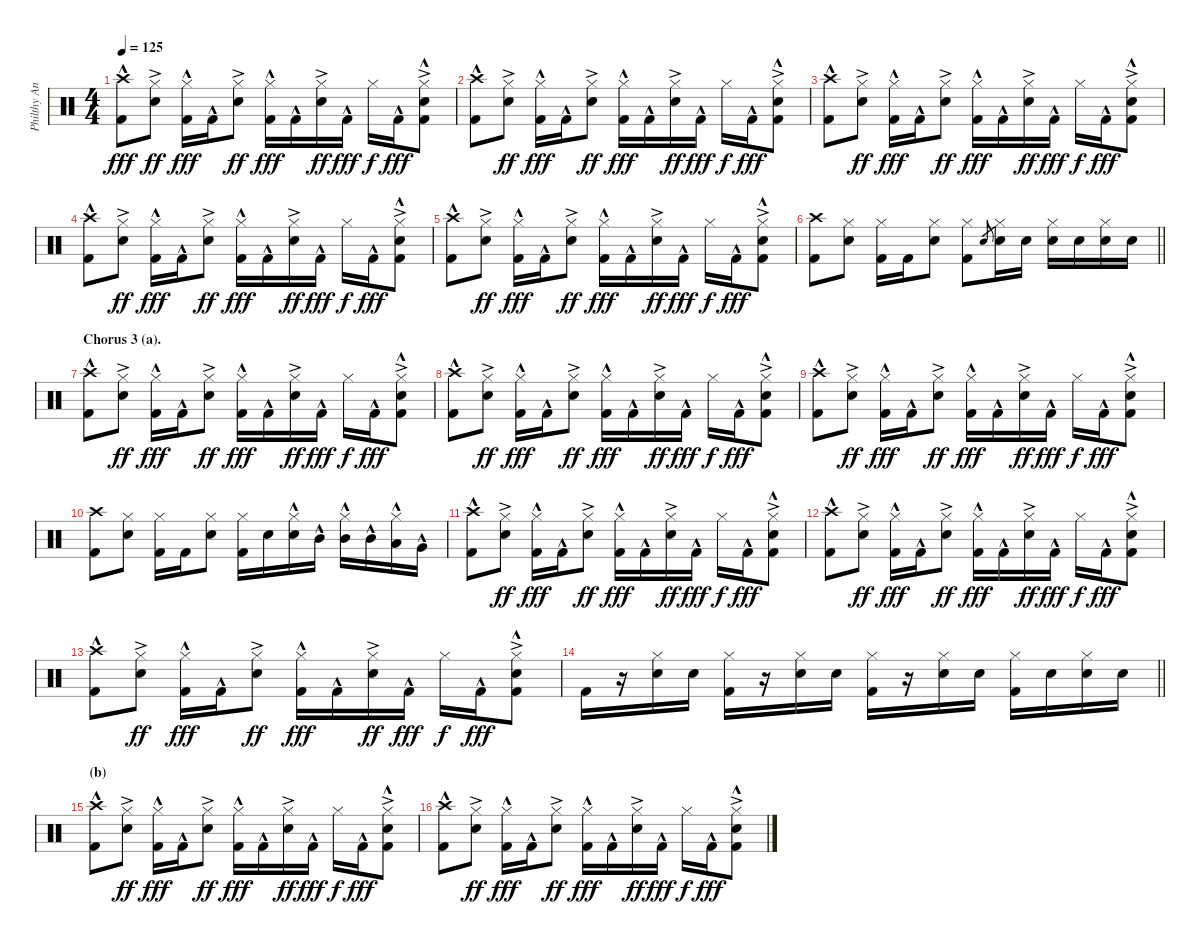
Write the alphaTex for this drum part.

\track ("Philthy Animal Taylor" "Philthy An") {instrument percussion}
\staff {score}
\articulation defaults
\ts (4 4)
\tempo 125
\clef neutral
\ks c
("Crash high (hit)" "Kick (hit) 2"{hac}).8{dy fff} ("Hi-Hat (closed)" "Electric Snare (hit)"{ac}).8{dy ff} ("Hi-Hat (closed)" "Kick (hit) 2"{hac}).16{dy fff} "Kick (hit) 2"{hac}.16 ("Hi-Hat (closed)" "Electric Snare (hit)"{ac}).8{dy ff} ("Hi-Hat (closed)" "Kick (hit) 2"{hac}).16{dy fff} "Kick (hit) 2"{hac}.16 ("Hi-Hat (closed)" "Electric Snare (hit)"{ac}).16{dy ff} "Kick (hit) 2"{hac}.16{dy fff} "Hi-Hat (closed)".16{dy f} "Kick (hit) 2"{hac}.16{dy fff} ("Hi-Hat (closed)" "Electric Snare (hit)"{ac} "Kick (hit) 2"{hac}).8 |
("Crash high (hit)" "Kick (hit) 2"{hac}).8 ("Hi-Hat (closed)" "Electric Snare (hit)"{ac}).8{dy ff} ("Hi-Hat (closed)" "Kick (hit) 2"{hac}).16{dy fff} "Kick (hit) 2"{hac}.16 ("Hi-Hat (closed)" "Electric Snare (hit)"{ac}).8{dy ff} ("Hi-Hat (closed)" "Kick (hit) 2"{hac}).16{dy fff} "Kick (hit) 2"{hac}.16 ("Hi-Hat (closed)" "Electric Snare (hit)"{ac}).16{dy ff} "Kick (hit) 2"{hac}.16{dy fff} "Hi-Hat (closed)".16{dy f} "Kick (hit) 2"{hac}.16{dy fff} ("Hi-Hat (closed)" "Electric Snare (hit)"{ac} "Kick (hit) 2"{hac}).8 |
("Crash high (hit)" "Kick (hit) 2"{hac}).8 ("Hi-Hat (closed)" "Electric Snare (hit)"{ac}).8{dy ff} ("Hi-Hat (closed)" "Kick (hit) 2"{hac}).16{dy fff} "Kick (hit) 2"{hac}.16 ("Hi-Hat (closed)" "Electric Snare (hit)"{ac}).8{dy ff} ("Hi-Hat (closed)" "Kick (hit) 2"{hac}).16{dy fff} "Kick (hit) 2"{hac}.16 ("Hi-Hat (closed)" "Electric Snare (hit)"{ac}).16{dy ff} "Kick (hit) 2"{hac}.16{dy fff} "Hi-Hat (closed)".16{dy f} "Kick (hit) 2"{hac}.16{dy fff} ("Hi-Hat (closed)" "Electric Snare (hit)"{ac} "Kick (hit) 2"{hac}).8 |
("Crash high (hit)" "Kick (hit) 2"{hac}).8 ("Hi-Hat (closed)" "Electric Snare (hit)"{ac}).8{dy ff} ("Hi-Hat (closed)" "Kick (hit) 2"{hac}).16{dy fff} "Kick (hit) 2"{hac}.16 ("Hi-Hat (closed)" "Electric Snare (hit)"{ac}).8{dy ff} ("Hi-Hat (closed)" "Kick (hit) 2"{hac}).16{dy fff} "Kick (hit) 2"{hac}.16 ("Hi-Hat (closed)" "Electric Snare (hit)"{ac}).16{dy ff} "Kick (hit) 2"{hac}.16{dy fff} "Hi-Hat (closed)".16{dy f} "Kick (hit) 2"{hac}.16{dy fff} ("Hi-Hat (closed)" "Electric Snare (hit)"{ac} "Kick (hit) 2"{hac}).8 |
("Crash high (hit)" "Kick (hit) 2"{hac}).8 ("Hi-Hat (closed)" "Electric Snare (hit)"{ac}).8{dy ff} ("Hi-Hat (closed)" "Kick (hit) 2"{hac}).16{dy fff} "Kick (hit) 2"{hac}.16 ("Hi-Hat (closed)" "Electric Snare (hit)"{ac}).8{dy ff} ("Hi-Hat (closed)" "Kick (hit) 2"{hac}).16{dy fff} "Kick (hit) 2"{hac}.16 ("Hi-Hat (closed)" "Electric Snare (hit)"{ac}).16{dy ff} "Kick (hit) 2"{hac}.16{dy fff} "Hi-Hat (closed)".16{dy f} "Kick (hit) 2"{hac}.16{dy fff} ("Hi-Hat (closed)" "Electric Snare (hit)"{ac} "Kick (hit) 2"{hac}).8 |
\barLineRight lightlight
("Crash high (hit)" "Kick (hit) 2").8 ("Hi-Hat (closed)" "Electric Snare (hit)").8 ("Hi-Hat (closed)" "Kick (hit) 2").16 "Kick (hit) 2".16 ("Hi-Hat (closed)" "Electric Snare (hit)").8 ("Hi-Hat (closed)" "Kick (hit) 2").8 "Electric Snare (hit)".8{gr} ("Hi-Hat (closed)" "Electric Snare (hit)").16 "Electric Snare (hit)".16 ("Hi-Hat (closed)" "Electric Snare (hit)").16 "Electric Snare (hit)".16 ("Hi-Hat (closed)" "Electric Snare (hit)").16 "Electric Snare (hit)".16 |
\section ("" "Chorus 3 (a).")
("Crash high (hit)" "Kick (hit) 2"{hac}).8 ("Hi-Hat (closed)" "Electric Snare (hit)"{ac}).8{dy ff} ("Hi-Hat (closed)" "Kick (hit) 2"{hac}).16{dy fff} "Kick (hit) 2"{hac}.16 ("Hi-Hat (closed)" "Electric Snare (hit)"{ac}).8{dy ff} ("Hi-Hat (closed)" "Kick (hit) 2"{hac}).16{dy fff} "Kick (hit) 2"{hac}.16 ("Hi-Hat (closed)" "Electric Snare (hit)"{ac}).16{dy ff} "Kick (hit) 2"{hac}.16{dy fff} "Hi-Hat (closed)".16{dy f} "Kick (hit) 2"{hac}.16{dy fff} ("Hi-Hat (closed)" "Electric Snare (hit)"{ac} "Kick (hit) 2"{hac}).8 |
("Crash high (hit)" "Kick (hit) 2"{hac}).8 ("Hi-Hat (closed)" "Electric Snare (hit)"{ac}).8{dy ff} ("Hi-Hat (closed)" "Kick (hit) 2"{hac}).16{dy fff} "Kick (hit) 2"{hac}.16 ("Hi-Hat (closed)" "Electric Snare (hit)"{ac}).8{dy ff} ("Hi-Hat (closed)" "Kick (hit) 2"{hac}).16{dy fff} "Kick (hit) 2"{hac}.16 ("Hi-Hat (closed)" "Electric Snare (hit)"{ac}).16{dy ff} "Kick (hit) 2"{hac}.16{dy fff} "Hi-Hat (closed)".16{dy f} "Kick (hit) 2"{hac}.16{dy fff} ("Hi-Hat (closed)" "Electric Snare (hit)"{ac} "Kick (hit) 2"{hac}).8 |
("Crash high (hit)" "Kick (hit) 2"{hac}).8 ("Hi-Hat (closed)" "Electric Snare (hit)"{ac}).8{dy ff} ("Hi-Hat (closed)" "Kick (hit) 2"{hac}).16{dy fff} "Kick (hit) 2"{hac}.16 ("Hi-Hat (closed)" "Electric Snare (hit)"{ac}).8{dy ff} ("Hi-Hat (closed)" "Kick (hit) 2"{hac}).16{dy fff} "Kick (hit) 2"{hac}.16 ("Hi-Hat (closed)" "Electric Snare (hit)"{ac}).16{dy ff} "Kick (hit) 2"{hac}.16{dy fff} "Hi-Hat (closed)".16{dy f} "Kick (hit) 2"{hac}.16{dy fff} ("Hi-Hat (closed)" "Electric Snare (hit)"{ac} "Kick (hit) 2"{hac}).8 |
("Crash high (hit)" "Kick (hit) 2").8 ("Hi-Hat (closed)" "Electric Snare (hit)").8 ("Hi-Hat (closed)" "Kick (hit) 2").16 "Kick (hit) 2".16 ("Hi-Hat (closed)" "Electric Snare (hit)").8 ("Hi-Hat (closed)" "Kick (hit) 2").16 "Electric Snare (hit)".16 ("Hi-Hat (closed)" "Electric Snare (hit)"{hac}).16 "Mid Tom (hit)"{hac}.16 ("Hi-Hat (closed)" "Mid Tom (hit)"{hac}).16 "Mid Tom (hit)"{hac}.16 ("Hi-Hat (closed)" "Low Tom (hit)"{hac}).16 "Very Low Tom (hit)"{hac}.16 |
("Crash high (hit)" "Kick (hit) 2"{hac}).8 ("Hi-Hat (closed)" "Electric Snare (hit)"{ac}).8{dy ff} ("Hi-Hat (closed)" "Kick (hit) 2"{hac}).16{dy fff} "Kick (hit) 2"{hac}.16 ("Hi-Hat (closed)" "Electric Snare (hit)"{ac}).8{dy ff} ("Hi-Hat (closed)" "Kick (hit) 2"{hac}).16{dy fff} "Kick (hit) 2"{hac}.16 ("Hi-Hat (closed)" "Electric Snare (hit)"{ac}).16{dy ff} "Kick (hit) 2"{hac}.16{dy fff} "Hi-Hat (closed)".16{dy f} "Kick (hit) 2"{hac}.16{dy fff} ("Hi-Hat (closed)" "Electric Snare (hit)"{ac} "Kick (hit) 2"{hac}).8 |
("Crash high (hit)" "Kick (hit) 2"{hac}).8 ("Hi-Hat (closed)" "Electric Snare (hit)"{ac}).8{dy ff} ("Hi-Hat (closed)" "Kick (hit) 2"{hac}).16{dy fff} "Kick (hit) 2"{hac}.16 ("Hi-Hat (closed)" "Electric Snare (hit)"{ac}).8{dy ff} ("Hi-Hat (closed)" "Kick (hit) 2"{hac}).16{dy fff} "Kick (hit) 2"{hac}.16 ("Hi-Hat (closed)" "Electric Snare (hit)"{ac}).16{dy ff} "Kick (hit) 2"{hac}.16{dy fff} "Hi-Hat (closed)".16{dy f} "Kick (hit) 2"{hac}.16{dy fff} ("Hi-Hat (closed)" "Electric Snare (hit)"{ac} "Kick (hit) 2"{hac}).8 |
("Crash high (hit)" "Kick (hit) 2"{hac}).8 ("Hi-Hat (closed)" "Electric Snare (hit)"{ac}).8{dy ff} ("Hi-Hat (closed)" "Kick (hit) 2"{hac}).16{dy fff} "Kick (hit) 2"{hac}.16 ("Hi-Hat (closed)" "Electric Snare (hit)"{ac}).8{dy ff} ("Hi-Hat (closed)" "Kick (hit) 2"{hac}).16{dy fff} "Kick (hit) 2"{hac}.16 ("Hi-Hat (closed)" "Electric Snare (hit)"{ac}).16{dy ff} "Kick (hit) 2"{hac}.16{dy fff} "Hi-Hat (closed)".16{dy f} "Kick (hit) 2"{hac}.16{dy fff} ("Hi-Hat (closed)" "Electric Snare (hit)"{ac} "Kick (hit) 2"{hac}).8 |
\barLineRight lightlight "Kick (hit) 2".16
r.16 ("Hi-Hat (closed)" "Electric Snare (hit)").16 "Electric Snare (hit)".16 ("Hi-Hat (closed)" "Kick (hit) 2").16 r.16 ("Hi-Hat (closed)" "Electric Snare (hit)").16 "Electric Snare (hit)".16 ("Hi-Hat (closed)" "Kick (hit) 2").16 r.16 ("Hi-Hat (closed)" "Electric Snare (hit)").16 "Electric Snare (hit)".16 ("Hi-Hat (closed)" "Kick (hit) 2").16 "Electric Snare (hit)".16 ("Hi-Hat (closed)" "Electric Snare (hit)").16 "Electric Snare (hit)".16 |
\section ("" "(b)")
("Crash high (hit)" "Kick (hit) 2"{hac}).8 ("Hi-Hat (closed)" "Electric Snare (hit)"{ac}).8{dy ff} ("Hi-Hat (closed)" "Kick (hit) 2"{hac}).16{dy fff} "Kick (hit) 2"{hac}.16 ("Hi-Hat (closed)" "Electric Snare (hit)"{ac}).8{dy ff} ("Hi-Hat (closed)" "Kick (hit) 2"{hac}).16{dy fff} "Kick (hit) 2"{hac}.16 ("Hi-Hat (closed)" "Electric Snare (hit)"{ac}).16{dy ff} "Kick (hit) 2"{hac}.16{dy fff} "Hi-Hat (closed)".16{dy f} "Kick (hit) 2"{hac}.16{dy fff} ("Hi-Hat (closed)" "Electric Snare (hit)"{ac} "Kick (hit) 2"{hac}).8 |
("Crash high (hit)" "Kick (hit) 2"{hac}).8 ("Hi-Hat (closed)" "Electric Snare (hit)"{ac}).8{dy ff} ("Hi-Hat (closed)" "Kick (hit) 2"{hac}).16{dy fff} "Kick (hit) 2"{hac}.16 ("Hi-Hat (closed)" "Electric Snare (hit)"{ac}).8{dy ff} ("Hi-Hat (closed)" "Kick (hit) 2"{hac}).16{dy fff} "Kick (hit) 2"{hac}.16 ("Hi-Hat (closed)" "Electric Snare (hit)"{ac}).16{dy ff} "Kick (hit) 2"{hac}.16{dy fff} "Hi-Hat (closed)".16{dy f} "Kick (hit) 2"{hac}.16{dy fff} ("Hi-Hat (closed)" "Electric Snare (hit)"{ac} "Kick (hit) 2"{hac}).8
